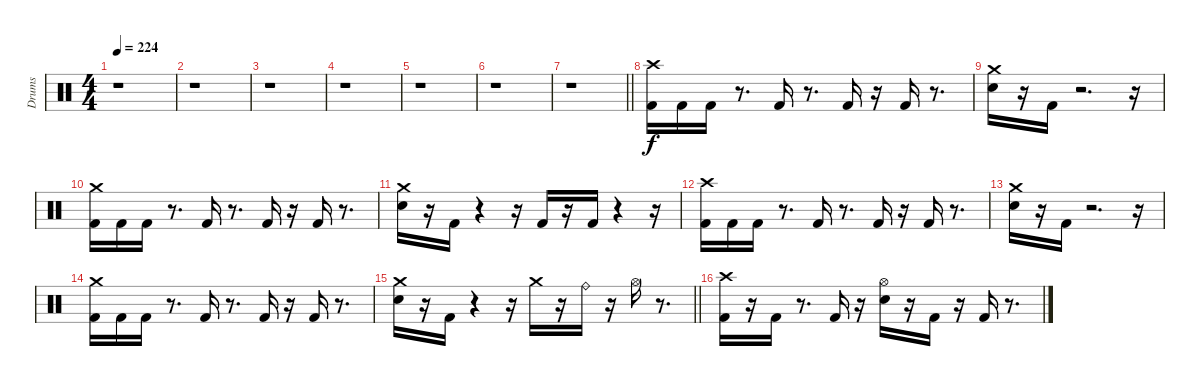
\track ("Drums" "Drums") {instrument percussion}
\staff {score}
\articulation defaults
\ts (4 4)
\tempo 224
\clef neutral
\ks c
r.1{dy f} |
r.1 |
r.1 |
r.1 |
r.1 |
r.1 |
\barLineRight lightlight
r.1 |
\section ("" " ")
("Kick (hit) 2" "Crash high (hit)").16 "Kick (hit) 2".16 "Kick (hit) 2".16 r.8{d} "Kick (hit) 2".16 r.8{d} "Kick (hit) 2".16 r.16 "Kick (hit) 2".16 r.8{d} |
("Snare (hit) 2" "Crash medium (hit)").16 r.16 "Kick (hit) 2".16 r.2{d} r.16 |
("Kick (hit) 2" "Crash medium (hit)").16 "Kick (hit) 2".16 "Kick (hit) 2".16 r.8{d} "Kick (hit) 2".16 r.8{d} "Kick (hit) 2".16 r.16 "Kick (hit) 2".16 r.8{d} |
("Snare (hit) 2" "Crash medium (hit)").16 r.16 "Kick (hit) 2".16 r.4 r.16 "Kick (hit) 2".16 r.16 "Kick (hit) 2".16 r.4 r.16 |
("Kick (hit) 2" "Crash high (hit)").16 "Kick (hit) 2".16 "Kick (hit) 2".16 r.8{d} "Kick (hit) 2".16 r.8{d} "Kick (hit) 2".16 r.16 "Kick (hit) 2".16 r.8{d} |
("Snare (hit) 2" "Crash medium (hit)").16 r.16 "Kick (hit) 2".16 r.2{d} r.16 |
("Kick (hit) 2" "Crash medium (hit)").16 "Kick (hit) 2".16 "Kick (hit) 2".16 r.8{d} "Kick (hit) 2".16 r.8{d} "Kick (hit) 2".16 r.16 "Kick (hit) 2".16 r.8{d} |
\barLineRight lightlight
("Snare (hit) 2" "Crash medium (hit)").16 r.16 "Kick (hit) 2".16 r.4 r.16 "Crash medium (hit)".16 r.16 "Ride (bell)".16 r.16 "Hi-Hat (open)".16 r.8{d} |
("Kick (hit) 2" "Crash high (hit)").16 r.16 "Kick (hit) 2".16 r.8{d} "Kick (hit) 2".16 r.16 ("Snare (hit) 2" "Hi-Hat (open)").16 r.16 "Kick (hit) 2".16 r.16 "Kick (hit) 2".16 r.8{d}
